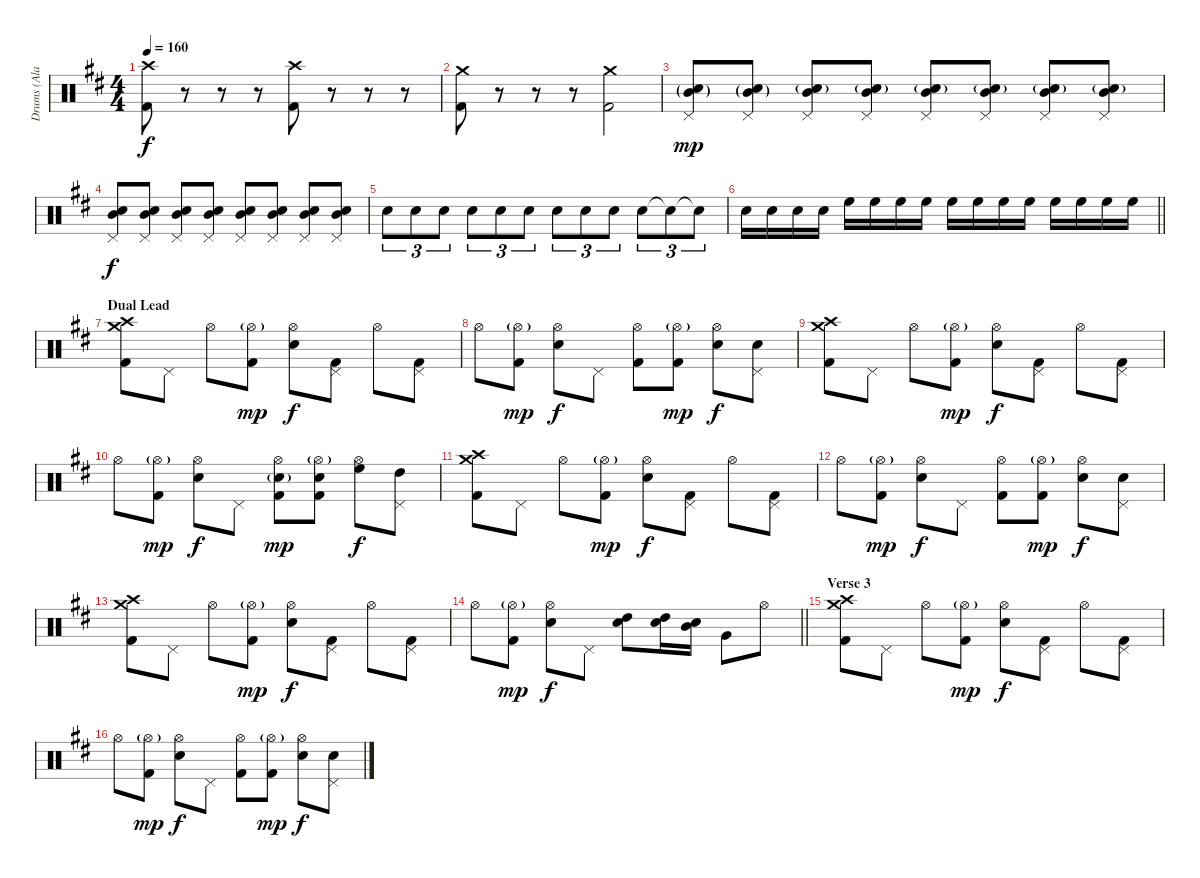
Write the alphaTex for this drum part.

\track ("Drums (Ala Pyle)" "Drums (Ala") {instrument percussion}
\staff {score}
\articulation defaults
\ts (4 4)
\tempo 160
\clef neutral
\ks d
("Crash high (hit)" "Kick (hit) 2").8{dy f} r.8 r.8 r.8 ("Crash high (hit)" "Kick (hit) 2").8 r.8 r.8 r.8 |
("Crash medium (hit)" "Kick (hit) 2").8 r.8 r.8 r.8 ("Crash medium (hit)" "Kick (hit) 2").2 |
("Mid Tom (hit)"{g} "Snare (hit) 2"{g} "Pedal Hi-Hat (hit)").8{dy mp} ("Mid Tom (hit)"{g} "Snare (hit) 2"{g} "Pedal Hi-Hat (hit)").8 ("Mid Tom (hit)" "Snare (hit) 2"{g} "Pedal Hi-Hat (hit)").8 ("Mid Tom (hit)" "Snare (hit) 2"{g} "Pedal Hi-Hat (hit)").8 ("Mid Tom (hit)" "Snare (hit) 2"{g} "Pedal Hi-Hat (hit)").8 ("Mid Tom (hit)" "Snare (hit) 2"{g} "Pedal Hi-Hat (hit)").8 ("Mid Tom (hit)" "Snare (hit) 2"{g} "Pedal Hi-Hat (hit)").8 ("Mid Tom (hit)" "Snare (hit) 2"{g} "Pedal Hi-Hat (hit)").8 |
("Mid Tom (hit)" "Snare (hit) 2" "Pedal Hi-Hat (hit)").8{dy f} ("Mid Tom (hit)" "Snare (hit) 2" "Pedal Hi-Hat (hit)").8 ("Mid Tom (hit)" "Snare (hit) 2" "Pedal Hi-Hat (hit)").8 ("Mid Tom (hit)" "Snare (hit) 2" "Pedal Hi-Hat (hit)").8 ("Mid Tom (hit)" "Snare (hit) 2" "Pedal Hi-Hat (hit)").8 ("Mid Tom (hit)" "Snare (hit) 2" "Pedal Hi-Hat (hit)").8 ("Mid Tom (hit)" "Snare (hit) 2" "Pedal Hi-Hat (hit)").8 ("Mid Tom (hit)" "Snare (hit) 2" "Pedal Hi-Hat (hit)").8 |
"Snare (hit) 2".8{tu (3 2)} "Snare (hit) 2".8{tu (3 2)} "Snare (hit) 2".8{tu (3 2)} "Snare (hit) 2".8{tu (3 2)} "Snare (hit) 2".8{tu (3 2)} "Snare (hit) 2".8{tu (3 2)} "Snare (hit) 2".8{tu (3 2)} "Snare (hit) 2".8{tu (3 2)} "Snare (hit) 2".8{tu (3 2)} "Snare (hit) 2".8{tu (3 2)} "Electric Snare (hit)"{t}.8{tu (3 2)} "Electric Snare (hit)"{t}.8{tu (3 2)} |
\barLineRight lightlight "Snare (hit) 2".16 "Snare (hit) 2".16 "Snare (hit) 2".16 "Snare (hit) 2".16 "High Floor Tom (hit)".16 "High Floor Tom (hit)".16 "High Floor Tom (hit)".16 "High Floor Tom (hit)".16 "High Floor Tom (hit)".16 "High Floor Tom (hit)".16 "High Floor Tom (hit)".16 "High Floor Tom (hit)".16 "High Floor Tom (hit)".16 "High Floor Tom (hit)".16 "High Floor Tom (hit)".16 "High Floor Tom (hit)".16
|
\section ("" "Dual Lead")
("Crash medium (hit)" "Crash high (hit)" "Kick (hit) 2").8 "Pedal Hi-Hat (hit)".8 "Hi-Hat (open)".8 ("Hi-Hat (open)"{g} "Kick (hit) 2").8{dy mp} ("Snare (hit) 2" "Hi-Hat (open)").8{dy f} ("Pedal Hi-Hat (hit)" "Kick (hit) 2").8 "Hi-Hat (open)".8 ("Pedal Hi-Hat (hit)" "Kick (hit) 2").8 |
"Hi-Hat (open)".8 ("Hi-Hat (open)"{g} "Kick (hit) 2").8{dy mp} ("Snare (hit) 2" "Hi-Hat (open)").8{dy f} "Pedal Hi-Hat (hit)".8 ("Hi-Hat (open)" "Kick (hit) 2").8 ("Hi-Hat (open)"{g} "Kick (hit) 2").8{dy mp} ("Snare (hit) 2" "Hi-Hat (open)").8{dy f} ("Snare (hit) 2" "Pedal Hi-Hat (hit)").8 |
("Crash medium (hit)" "Crash high (hit)" "Kick (hit) 2").8 "Pedal Hi-Hat (hit)".8 "Hi-Hat (open)".8 ("Hi-Hat (open)"{g} "Kick (hit) 2").8{dy mp} ("Snare (hit) 2" "Hi-Hat (open)").8{dy f} ("Pedal Hi-Hat (hit)" "Kick (hit) 2").8 "Hi-Hat (open)".8 ("Pedal Hi-Hat (hit)" "Kick (hit) 2").8 |
"Hi-Hat (open)".8 ("Hi-Hat (open)"{g} "Kick (hit) 2").8{dy mp} ("Snare (hit) 2" "Hi-Hat (open)").8{dy f} "Pedal Hi-Hat (hit)".8 ("Snare (hit) 2"{g} "Hi-Hat (open)" "Kick (hit) 2").8{dy mp} ("Snare (hit) 2" "Hi-Hat (open)"{g} "Kick (hit) 2").8 ("High Floor Tom (hit)" "Hi-Hat (open)").8{dy f} ("High Tom (hit)" "Pedal Hi-Hat (hit)").8 |
("Crash medium (hit)" "Crash high (hit)" "Kick (hit) 2").8 "Pedal Hi-Hat (hit)".8 "Hi-Hat (open)".8 ("Hi-Hat (open)"{g} "Kick (hit) 2").8{dy mp} ("Snare (hit) 2" "Hi-Hat (open)").8{dy f} ("Pedal Hi-Hat (hit)" "Kick (hit) 2").8 "Hi-Hat (open)".8 ("Pedal Hi-Hat (hit)" "Kick (hit) 2").8 |
"Hi-Hat (open)".8 ("Hi-Hat (open)"{g} "Kick (hit) 2").8{dy mp} ("Snare (hit) 2" "Hi-Hat (open)").8{dy f} "Pedal Hi-Hat (hit)".8 ("Hi-Hat (open)" "Kick (hit) 2").8 ("Hi-Hat (open)"{g} "Kick (hit) 2").8{dy mp} ("Snare (hit) 2" "Hi-Hat (open)").8{dy f} ("Snare (hit) 2" "Pedal Hi-Hat (hit)").8 |
("Crash medium (hit)" "Crash high (hit)" "Kick (hit) 2").8 "Pedal Hi-Hat (hit)".8 "Hi-Hat (open)".8 ("Hi-Hat (open)"{g} "Kick (hit) 2").8{dy mp} ("Snare (hit) 2" "Hi-Hat (open)").8{dy f} ("Pedal Hi-Hat (hit)" "Kick (hit) 2").8 "Hi-Hat (open)".8 ("Pedal Hi-Hat (hit)" "Kick (hit) 2").8 |
\barLineRight lightlight "Hi-Hat (open)".8
("Hi-Hat (open)"{g} "Kick (hit) 2").8{dy mp} ("Snare (hit) 2" "Hi-Hat (open)").8{dy f} "Pedal Hi-Hat (hit)".8 ("Snare (hit) 2" "High Tom (hit)").8 ("Snare (hit) 2" "High Tom (hit)").16 ("Snare (hit) 2" "Mid Tom (hit)").16 "Very Low Tom (hit)".8 "Hi-Hat (open)".8 |
\section ("" "Verse 3")
("Crash medium (hit)" "Crash high (hit)" "Kick (hit) 2").8 "Pedal Hi-Hat (hit)".8 "Hi-Hat (open)".8 ("Hi-Hat (open)"{g} "Kick (hit) 2").8{dy mp} ("Snare (hit) 2" "Hi-Hat (open)").8{dy f} ("Pedal Hi-Hat (hit)" "Kick (hit) 2").8 "Hi-Hat (open)".8 ("Pedal Hi-Hat (hit)" "Kick (hit) 2").8 |
"Hi-Hat (open)".8 ("Hi-Hat (open)"{g} "Kick (hit) 2").8{dy mp} ("Snare (hit) 2" "Hi-Hat (open)").8{dy f} "Pedal Hi-Hat (hit)".8 ("Hi-Hat (open)" "Kick (hit) 2").8 ("Hi-Hat (open)"{g} "Kick (hit) 2").8{dy mp} ("Snare (hit) 2" "Hi-Hat (open)").8{dy f} ("Snare (hit) 2" "Pedal Hi-Hat (hit)").8
